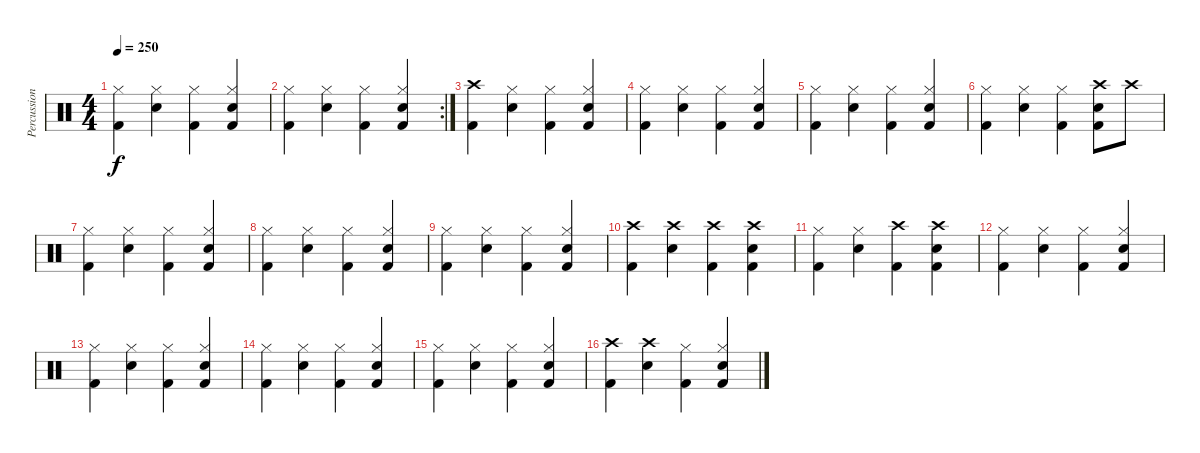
\track ("Percussion" "Percussion") {instrument percussion}
\staff {score}
\articulation defaults
\ts (4 4)
\tempo 250
\clef neutral
\ks c
("Kick (hit) 2" "Hi-Hat (closed)").4{dy f} ("Electric Snare (hit)" "Hi-Hat (closed)").4 ("Kick (hit) 2" "Hi-Hat (closed)").4 ("Electric Snare (hit)" "Kick (hit) 2" "Hi-Hat (closed)").4 |
\rc 2
("Kick (hit) 2" "Hi-Hat (closed)").4 ("Electric Snare (hit)" "Hi-Hat (closed)").4 ("Kick (hit) 2" "Hi-Hat (closed)").4 ("Electric Snare (hit)" "Kick (hit) 2" "Hi-Hat (closed)").4 |
("Kick (hit) 2" "Crash high (hit)").4 ("Electric Snare (hit)" "Hi-Hat (closed)").4 ("Kick (hit) 2" "Hi-Hat (closed)").4 ("Electric Snare (hit)" "Kick (hit) 2" "Hi-Hat (closed)").4 |
("Kick (hit) 2" "Hi-Hat (closed)").4 ("Electric Snare (hit)" "Hi-Hat (closed)").4 ("Kick (hit) 2" "Hi-Hat (closed)").4 ("Electric Snare (hit)" "Kick (hit) 2" "Hi-Hat (closed)").4 |
("Kick (hit) 2" "Hi-Hat (closed)").4 ("Electric Snare (hit)" "Hi-Hat (closed)").4 ("Kick (hit) 2" "Hi-Hat (closed)").4 ("Electric Snare (hit)" "Kick (hit) 2" "Hi-Hat (closed)").4 |
("Kick (hit) 2" "Hi-Hat (closed)").4 ("Electric Snare (hit)" "Hi-Hat (closed)").4 ("Kick (hit) 2" "Hi-Hat (closed)").4 ("Electric Snare (hit)" "Kick (hit) 2" "Crash high (hit)").8 "Crash high (hit)".8 |
("Kick (hit) 2" "Hi-Hat (closed)").4 ("Electric Snare (hit)" "Hi-Hat (closed)").4 ("Kick (hit) 2" "Hi-Hat (closed)").4 ("Electric Snare (hit)" "Kick (hit) 2" "Hi-Hat (closed)").4 |
("Kick (hit) 2" "Hi-Hat (closed)").4 ("Electric Snare (hit)" "Hi-Hat (closed)").4 ("Kick (hit) 2" "Hi-Hat (closed)").4 ("Electric Snare (hit)" "Kick (hit) 2" "Hi-Hat (closed)").4 |
("Kick (hit) 2" "Hi-Hat (closed)").4 ("Electric Snare (hit)" "Hi-Hat (closed)").4 ("Kick (hit) 2" "Hi-Hat (closed)").4 ("Electric Snare (hit)" "Kick (hit) 2" "Hi-Hat (closed)").4 |
("Kick (hit) 2" "Crash high (hit)").4 ("Electric Snare (hit)" "Crash high (hit)").4 ("Kick (hit) 2" "Crash high (hit)").4 ("Electric Snare (hit)" "Kick (hit) 2" "Crash high (hit)").4 |
("Kick (hit) 2" "Hi-Hat (closed)").4 ("Electric Snare (hit)" "Hi-Hat (closed)").4 ("Kick (hit) 2" "Crash high (hit)").4 ("Electric Snare (hit)" "Kick (hit) 2" "Crash high (hit)").4 |
("Kick (hit) 2" "Hi-Hat (closed)").4 ("Electric Snare (hit)" "Hi-Hat (closed)").4 ("Kick (hit) 2" "Hi-Hat (closed)").4 ("Electric Snare (hit)" "Kick (hit) 2" "Hi-Hat (closed)").4 |
("Kick (hit) 2" "Hi-Hat (closed)").4 ("Electric Snare (hit)" "Hi-Hat (closed)").4 ("Kick (hit) 2" "Hi-Hat (closed)").4 ("Electric Snare (hit)" "Kick (hit) 2" "Hi-Hat (closed)").4 |
("Kick (hit) 2" "Hi-Hat (closed)").4 ("Electric Snare (hit)" "Hi-Hat (closed)").4 ("Kick (hit) 2" "Hi-Hat (closed)").4 ("Electric Snare (hit)" "Kick (hit) 2" "Hi-Hat (closed)").4 |
("Kick (hit) 2" "Hi-Hat (closed)").4 ("Electric Snare (hit)" "Hi-Hat (closed)").4 ("Kick (hit) 2" "Hi-Hat (closed)").4 ("Electric Snare (hit)" "Kick (hit) 2" "Hi-Hat (closed)").4 |
("Kick (hit) 2" "Crash high (hit)").4 ("Electric Snare (hit)" "Crash high (hit)").4 ("Kick (hit) 2" "Hi-Hat (closed)").4 ("Electric Snare (hit)" "Kick (hit) 2" "Hi-Hat (closed)").4
